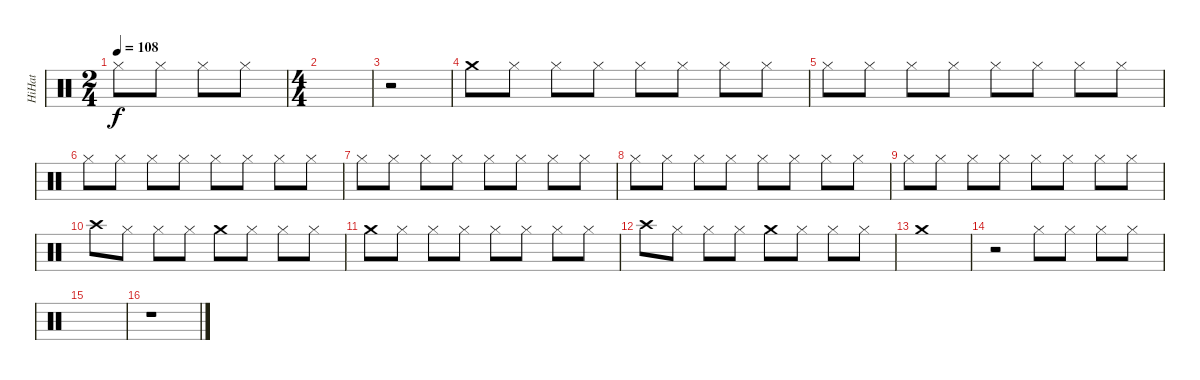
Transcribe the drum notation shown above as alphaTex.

\track ("HiHat" "HiHat") {instrument percussion}
\staff {score}
\articulation defaults
\ts (2 4)
\tempo 108
\clef neutral
\ks c "Hi-Hat (closed)".8{dy f} "Hi-Hat (closed)".8 "Hi-Hat (closed)".8 "Hi-Hat (closed)".8
|
\ts (4 4)
|
r.2 |
"Crash medium (hit)".8 "Hi-Hat (closed)".8 "Hi-Hat (closed)".8 "Hi-Hat (closed)".8 "Hi-Hat (closed)".8 "Hi-Hat (closed)".8 "Hi-Hat (closed)".8 "Hi-Hat (closed)".8 |
"Hi-Hat (closed)".8 "Hi-Hat (closed)".8 "Hi-Hat (closed)".8 "Hi-Hat (closed)".8 "Hi-Hat (closed)".8 "Hi-Hat (closed)".8 "Hi-Hat (closed)".8 "Hi-Hat (closed)".8 |
"Hi-Hat (closed)".8 "Hi-Hat (closed)".8 "Hi-Hat (closed)".8 "Hi-Hat (closed)".8 "Hi-Hat (closed)".8 "Hi-Hat (closed)".8 "Hi-Hat (closed)".8 "Hi-Hat (closed)".8 |
"Hi-Hat (closed)".8 "Hi-Hat (closed)".8 "Hi-Hat (closed)".8 "Hi-Hat (closed)".8 "Hi-Hat (closed)".8 "Hi-Hat (closed)".8 "Hi-Hat (closed)".8 "Hi-Hat (closed)".8 |
"Hi-Hat (closed)".8 "Hi-Hat (closed)".8 "Hi-Hat (closed)".8 "Hi-Hat (closed)".8 "Hi-Hat (closed)".8 "Hi-Hat (closed)".8 "Hi-Hat (closed)".8 "Hi-Hat (closed)".8 |
"Hi-Hat (closed)".8 "Hi-Hat (closed)".8 "Hi-Hat (closed)".8 "Hi-Hat (closed)".8 "Hi-Hat (closed)".8 "Hi-Hat (closed)".8 "Hi-Hat (closed)".8 "Hi-Hat (closed)".8 |
"Crash high (hit)".8 "Hi-Hat (closed)".8 "Hi-Hat (closed)".8 "Hi-Hat (closed)".8 "Crash medium (hit)".8 "Hi-Hat (closed)".8 "Hi-Hat (closed)".8 "Hi-Hat (closed)".8 |
"Crash medium (hit)".8 "Hi-Hat (closed)".8 "Hi-Hat (closed)".8 "Hi-Hat (closed)".8 "Hi-Hat (closed)".8 "Hi-Hat (closed)".8 "Hi-Hat (closed)".8 "Hi-Hat (closed)".8 |
"Crash high (hit)".8 "Hi-Hat (closed)".8 "Hi-Hat (closed)".8 "Hi-Hat (closed)".8 "Crash medium (hit)".8 "Hi-Hat (closed)".8 "Hi-Hat (closed)".8 "Hi-Hat (closed)".8 |
"Crash medium (hit)".1 |
r.2 "Hi-Hat (closed)".8 "Hi-Hat (closed)".8 "Hi-Hat (closed)".8 "Hi-Hat (closed)".8 |
|
r.1
